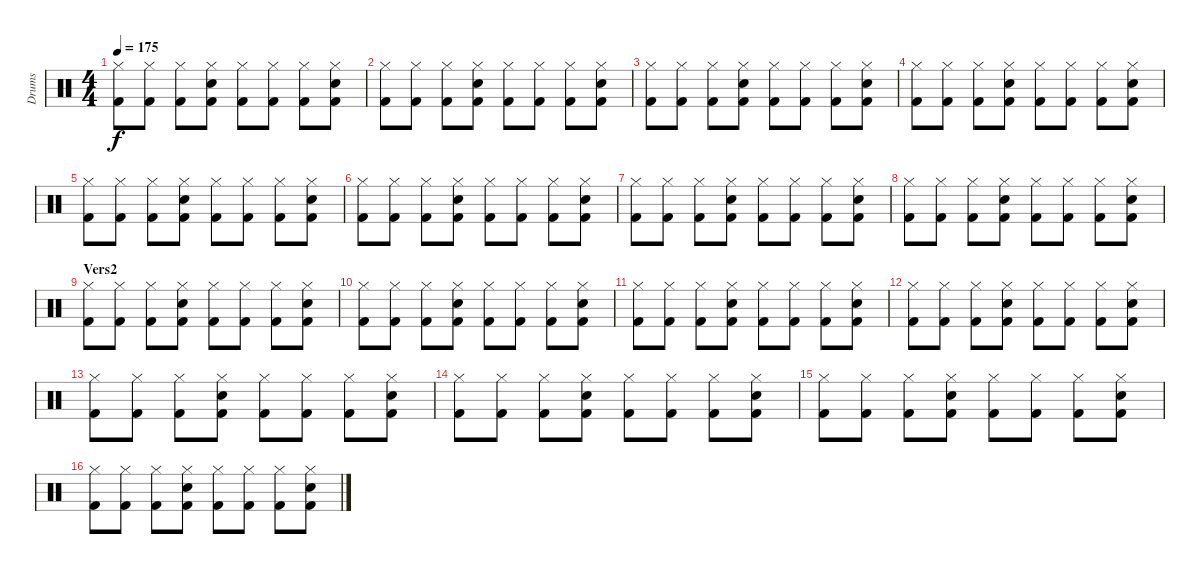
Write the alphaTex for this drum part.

\track ("Drums" "Drums") {instrument percussion}
\staff {score}
\articulation defaults
\ts (4 4)
\tempo 175
\clef neutral
\ks c
("Kick (hit) 2" "Hi-Hat (closed)").8{dy f} ("Kick (hit) 2" "Hi-Hat (closed)").8 ("Kick (hit) 2" "Hi-Hat (closed)").8 ("Kick (hit) 2" "Hi-Hat (closed)" "Snare (hit) 2").8 ("Kick (hit) 2" "Hi-Hat (closed)").8 ("Kick (hit) 2" "Hi-Hat (closed)").8 ("Kick (hit) 2" "Hi-Hat (closed)").8 ("Kick (hit) 2" "Hi-Hat (closed)" "Snare (hit) 2").8 |
("Kick (hit) 2" "Hi-Hat (closed)").8 ("Kick (hit) 2" "Hi-Hat (closed)").8 ("Kick (hit) 2" "Hi-Hat (closed)").8 ("Kick (hit) 2" "Hi-Hat (closed)" "Snare (hit) 2").8 ("Kick (hit) 2" "Hi-Hat (closed)").8 ("Kick (hit) 2" "Hi-Hat (closed)").8 ("Kick (hit) 2" "Hi-Hat (closed)").8 ("Kick (hit) 2" "Hi-Hat (closed)" "Snare (hit) 2").8 |
("Kick (hit) 2" "Hi-Hat (closed)").8 ("Kick (hit) 2" "Hi-Hat (closed)").8 ("Kick (hit) 2" "Hi-Hat (closed)").8 ("Kick (hit) 2" "Hi-Hat (closed)" "Snare (hit) 2").8 ("Kick (hit) 2" "Hi-Hat (closed)").8 ("Kick (hit) 2" "Hi-Hat (closed)").8 ("Kick (hit) 2" "Hi-Hat (closed)").8 ("Kick (hit) 2" "Hi-Hat (closed)" "Snare (hit) 2").8 |
("Kick (hit) 2" "Hi-Hat (closed)").8 ("Kick (hit) 2" "Hi-Hat (closed)").8 ("Kick (hit) 2" "Hi-Hat (closed)").8 ("Kick (hit) 2" "Hi-Hat (closed)" "Snare (hit) 2").8 ("Kick (hit) 2" "Hi-Hat (closed)").8 ("Kick (hit) 2" "Hi-Hat (closed)").8 ("Kick (hit) 2" "Hi-Hat (closed)").8 ("Kick (hit) 2" "Hi-Hat (closed)" "Snare (hit) 2").8 |
("Kick (hit) 2" "Hi-Hat (closed)").8 ("Kick (hit) 2" "Hi-Hat (closed)").8 ("Kick (hit) 2" "Hi-Hat (closed)").8 ("Kick (hit) 2" "Hi-Hat (closed)" "Snare (hit) 2").8 ("Kick (hit) 2" "Hi-Hat (closed)").8 ("Kick (hit) 2" "Hi-Hat (closed)").8 ("Kick (hit) 2" "Hi-Hat (closed)").8 ("Kick (hit) 2" "Hi-Hat (closed)" "Snare (hit) 2").8 |
("Kick (hit) 2" "Hi-Hat (closed)").8 ("Kick (hit) 2" "Hi-Hat (closed)").8 ("Kick (hit) 2" "Hi-Hat (closed)").8 ("Kick (hit) 2" "Hi-Hat (closed)" "Snare (hit) 2").8 ("Kick (hit) 2" "Hi-Hat (closed)").8 ("Kick (hit) 2" "Hi-Hat (closed)").8 ("Kick (hit) 2" "Hi-Hat (closed)").8 ("Kick (hit) 2" "Hi-Hat (closed)" "Snare (hit) 2").8 |
("Kick (hit) 2" "Hi-Hat (closed)").8 ("Kick (hit) 2" "Hi-Hat (closed)").8 ("Kick (hit) 2" "Hi-Hat (closed)").8 ("Kick (hit) 2" "Hi-Hat (closed)" "Snare (hit) 2").8 ("Kick (hit) 2" "Hi-Hat (closed)").8 ("Kick (hit) 2" "Hi-Hat (closed)").8 ("Kick (hit) 2" "Hi-Hat (closed)").8 ("Kick (hit) 2" "Hi-Hat (closed)" "Snare (hit) 2").8 |
("Kick (hit) 2" "Hi-Hat (closed)").8 ("Kick (hit) 2" "Hi-Hat (closed)").8 ("Kick (hit) 2" "Hi-Hat (closed)").8 ("Kick (hit) 2" "Hi-Hat (closed)" "Snare (hit) 2").8 ("Kick (hit) 2" "Hi-Hat (closed)").8 ("Kick (hit) 2" "Hi-Hat (closed)").8 ("Kick (hit) 2" "Hi-Hat (closed)").8 ("Kick (hit) 2" "Hi-Hat (closed)" "Snare (hit) 2").8 |
\section ("" "Vers2")
("Kick (hit) 2" "Hi-Hat (closed)").8 ("Kick (hit) 2" "Hi-Hat (closed)").8 ("Kick (hit) 2" "Hi-Hat (closed)").8 ("Kick (hit) 2" "Hi-Hat (closed)" "Snare (hit) 2").8 ("Kick (hit) 2" "Hi-Hat (closed)").8 ("Kick (hit) 2" "Hi-Hat (closed)").8 ("Kick (hit) 2" "Hi-Hat (closed)").8 ("Kick (hit) 2" "Hi-Hat (closed)" "Snare (hit) 2").8 |
("Kick (hit) 2" "Hi-Hat (closed)").8 ("Kick (hit) 2" "Hi-Hat (closed)").8 ("Kick (hit) 2" "Hi-Hat (closed)").8 ("Kick (hit) 2" "Hi-Hat (closed)" "Snare (hit) 2").8 ("Kick (hit) 2" "Hi-Hat (closed)").8 ("Kick (hit) 2" "Hi-Hat (closed)").8 ("Kick (hit) 2" "Hi-Hat (closed)").8 ("Kick (hit) 2" "Hi-Hat (closed)" "Snare (hit) 2").8 |
("Kick (hit) 2" "Hi-Hat (closed)").8 ("Kick (hit) 2" "Hi-Hat (closed)").8 ("Kick (hit) 2" "Hi-Hat (closed)").8 ("Kick (hit) 2" "Hi-Hat (closed)" "Snare (hit) 2").8 ("Kick (hit) 2" "Hi-Hat (closed)").8 ("Kick (hit) 2" "Hi-Hat (closed)").8 ("Kick (hit) 2" "Hi-Hat (closed)").8 ("Kick (hit) 2" "Hi-Hat (closed)" "Snare (hit) 2").8 |
("Kick (hit) 2" "Hi-Hat (closed)").8 ("Kick (hit) 2" "Hi-Hat (closed)").8 ("Kick (hit) 2" "Hi-Hat (closed)").8 ("Kick (hit) 2" "Hi-Hat (closed)" "Snare (hit) 2").8 ("Kick (hit) 2" "Hi-Hat (closed)").8 ("Kick (hit) 2" "Hi-Hat (closed)").8 ("Kick (hit) 2" "Hi-Hat (closed)").8 ("Kick (hit) 2" "Hi-Hat (closed)" "Snare (hit) 2").8 |
("Kick (hit) 2" "Hi-Hat (closed)").8 ("Kick (hit) 2" "Hi-Hat (closed)").8 ("Kick (hit) 2" "Hi-Hat (closed)").8 ("Kick (hit) 2" "Hi-Hat (closed)" "Snare (hit) 2").8 ("Kick (hit) 2" "Hi-Hat (closed)").8 ("Kick (hit) 2" "Hi-Hat (closed)").8 ("Kick (hit) 2" "Hi-Hat (closed)").8 ("Kick (hit) 2" "Hi-Hat (closed)" "Snare (hit) 2").8 |
("Kick (hit) 2" "Hi-Hat (closed)").8 ("Kick (hit) 2" "Hi-Hat (closed)").8 ("Kick (hit) 2" "Hi-Hat (closed)").8 ("Kick (hit) 2" "Hi-Hat (closed)" "Snare (hit) 2").8 ("Kick (hit) 2" "Hi-Hat (closed)").8 ("Kick (hit) 2" "Hi-Hat (closed)").8 ("Kick (hit) 2" "Hi-Hat (closed)").8 ("Kick (hit) 2" "Hi-Hat (closed)" "Snare (hit) 2").8 |
("Kick (hit) 2" "Hi-Hat (closed)").8 ("Kick (hit) 2" "Hi-Hat (closed)").8 ("Kick (hit) 2" "Hi-Hat (closed)").8 ("Kick (hit) 2" "Hi-Hat (closed)" "Snare (hit) 2").8 ("Kick (hit) 2" "Hi-Hat (closed)").8 ("Kick (hit) 2" "Hi-Hat (closed)").8 ("Kick (hit) 2" "Hi-Hat (closed)").8 ("Kick (hit) 2" "Hi-Hat (closed)" "Snare (hit) 2").8 |
("Kick (hit) 2" "Hi-Hat (closed)").8 ("Kick (hit) 2" "Hi-Hat (closed)").8 ("Kick (hit) 2" "Hi-Hat (closed)").8 ("Kick (hit) 2" "Hi-Hat (closed)" "Snare (hit) 2").8 ("Kick (hit) 2" "Hi-Hat (closed)").8 ("Kick (hit) 2" "Hi-Hat (closed)").8 ("Kick (hit) 2" "Hi-Hat (closed)").8 ("Kick (hit) 2" "Hi-Hat (closed)" "Snare (hit) 2").8
